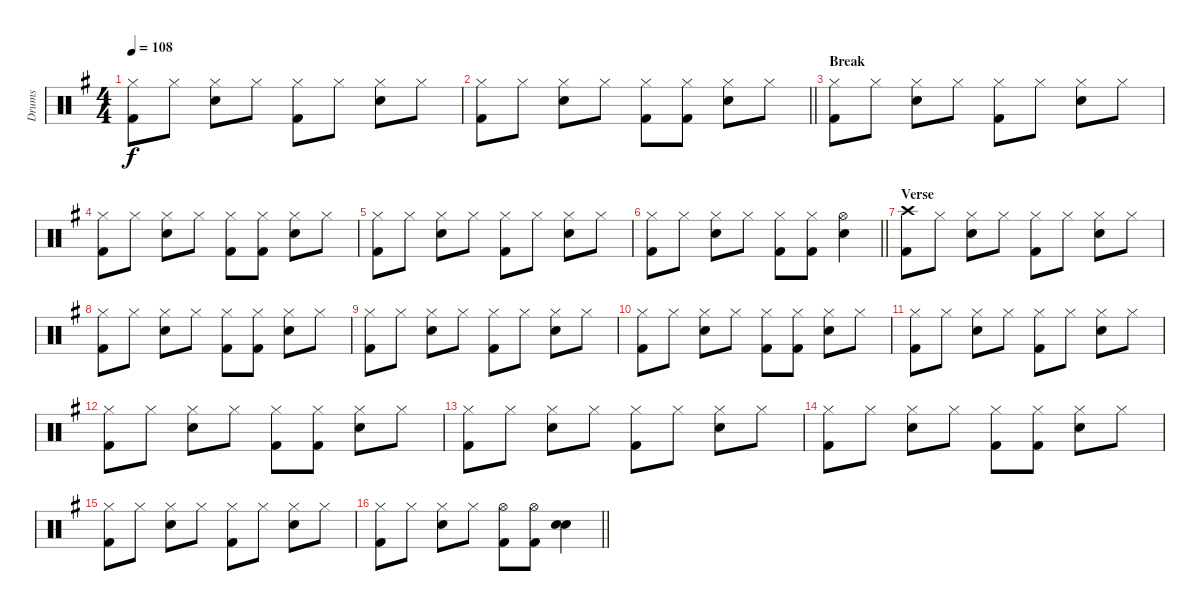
\track ("Drums" "Drums") {instrument percussion}
\staff {score}
\articulation defaults
\ts (4 4)
\tempo 108
\clef neutral
\ks g
("Hi-Hat (closed)" "Kick (hit) 2").8{dy f} "Hi-Hat (closed)".8 ("Hi-Hat (closed)" "Electric Snare (hit)").8 "Hi-Hat (closed)".8 ("Hi-Hat (closed)" "Kick (hit) 2").8 "Hi-Hat (closed)".8 ("Hi-Hat (closed)" "Electric Snare (hit)").8 "Hi-Hat (closed)".8 |
\barLineRight lightlight
("Hi-Hat (closed)" "Kick (hit) 2").8 "Hi-Hat (closed)".8 ("Hi-Hat (closed)" "Electric Snare (hit)").8 "Hi-Hat (closed)".8 ("Hi-Hat (closed)" "Kick (hit) 2").8 ("Hi-Hat (closed)" "Kick (hit) 2").8 ("Hi-Hat (closed)" "Electric Snare (hit)").8 "Hi-Hat (closed)".8 |
\section ("" "Break")
("Hi-Hat (closed)" "Kick (hit) 2").8 "Hi-Hat (closed)".8 ("Hi-Hat (closed)" "Electric Snare (hit)").8 "Hi-Hat (closed)".8 ("Hi-Hat (closed)" "Kick (hit) 2").8 "Hi-Hat (closed)".8 ("Hi-Hat (closed)" "Electric Snare (hit)").8 "Hi-Hat (closed)".8 |
("Hi-Hat (closed)" "Kick (hit) 2").8 "Hi-Hat (closed)".8 ("Hi-Hat (closed)" "Electric Snare (hit)").8 "Hi-Hat (closed)".8 ("Hi-Hat (closed)" "Kick (hit) 2").8 ("Hi-Hat (closed)" "Kick (hit) 2").8 ("Hi-Hat (closed)" "Electric Snare (hit)").8 "Hi-Hat (closed)".8 |
("Hi-Hat (closed)" "Kick (hit) 2").8 "Hi-Hat (closed)".8 ("Hi-Hat (closed)" "Electric Snare (hit)").8 "Hi-Hat (closed)".8 ("Hi-Hat (closed)" "Kick (hit) 2").8 "Hi-Hat (closed)".8 ("Hi-Hat (closed)" "Electric Snare (hit)").8 "Hi-Hat (closed)".8 |
\barLineRight lightlight
("Hi-Hat (closed)" "Kick (hit) 2").8 "Hi-Hat (closed)".8 ("Hi-Hat (closed)" "Electric Snare (hit)").8 "Hi-Hat (closed)".8 ("Hi-Hat (closed)" "Kick (hit) 2").8 ("Hi-Hat (closed)" "Kick (hit) 2").8 ("Hi-Hat (open)" "Electric Snare (hit)").4 |
\section ("" "Verse")
("Crash high (hit)" "Kick (hit) 2").8 "Hi-Hat (closed)".8 ("Hi-Hat (closed)" "Electric Snare (hit)").8 "Hi-Hat (closed)".8 ("Hi-Hat (closed)" "Kick (hit) 2").8 "Hi-Hat (closed)".8 ("Hi-Hat (closed)" "Electric Snare (hit)").8 "Hi-Hat (closed)".8 |
("Hi-Hat (closed)" "Kick (hit) 2").8 "Hi-Hat (closed)".8 ("Hi-Hat (closed)" "Electric Snare (hit)").8 "Hi-Hat (closed)".8 ("Hi-Hat (closed)" "Kick (hit) 2").8 ("Hi-Hat (closed)" "Kick (hit) 2").8 ("Hi-Hat (closed)" "Electric Snare (hit)").8 "Hi-Hat (closed)".8 |
("Hi-Hat (closed)" "Kick (hit) 2").8 "Hi-Hat (closed)".8 ("Hi-Hat (closed)" "Electric Snare (hit)").8 "Hi-Hat (closed)".8 ("Hi-Hat (closed)" "Kick (hit) 2").8 "Hi-Hat (closed)".8 ("Hi-Hat (closed)" "Electric Snare (hit)").8 "Hi-Hat (closed)".8 |
("Hi-Hat (closed)" "Kick (hit) 2").8 "Hi-Hat (closed)".8 ("Hi-Hat (closed)" "Electric Snare (hit)").8 "Hi-Hat (closed)".8 ("Hi-Hat (closed)" "Kick (hit) 2").8 ("Hi-Hat (closed)" "Kick (hit) 2").8 ("Hi-Hat (closed)" "Electric Snare (hit)").8 "Hi-Hat (closed)".8 |
("Hi-Hat (closed)" "Kick (hit) 2").8 "Hi-Hat (closed)".8 ("Hi-Hat (closed)" "Electric Snare (hit)").8 "Hi-Hat (closed)".8 ("Hi-Hat (closed)" "Kick (hit) 2").8 "Hi-Hat (closed)".8 ("Hi-Hat (closed)" "Electric Snare (hit)").8 "Hi-Hat (closed)".8 |
("Hi-Hat (closed)" "Kick (hit) 2").8 "Hi-Hat (closed)".8 ("Hi-Hat (closed)" "Electric Snare (hit)").8 "Hi-Hat (closed)".8 ("Hi-Hat (closed)" "Kick (hit) 2").8 ("Hi-Hat (closed)" "Kick (hit) 2").8 ("Hi-Hat (closed)" "Electric Snare (hit)").8 "Hi-Hat (closed)".8 |
("Hi-Hat (closed)" "Kick (hit) 2").8 "Hi-Hat (closed)".8 ("Hi-Hat (closed)" "Electric Snare (hit)").8 "Hi-Hat (closed)".8 ("Hi-Hat (closed)" "Kick (hit) 2").8 "Hi-Hat (closed)".8 ("Hi-Hat (closed)" "Electric Snare (hit)").8 "Hi-Hat (closed)".8 |
("Hi-Hat (closed)" "Kick (hit) 2").8 "Hi-Hat (closed)".8 ("Hi-Hat (closed)" "Electric Snare (hit)").8 "Hi-Hat (closed)".8 ("Hi-Hat (closed)" "Kick (hit) 2").8 ("Hi-Hat (closed)" "Kick (hit) 2").8 ("Hi-Hat (closed)" "Electric Snare (hit)").8 "Hi-Hat (closed)".8 |
("Hi-Hat (closed)" "Kick (hit) 2").8 "Hi-Hat (closed)".8 ("Hi-Hat (closed)" "Electric Snare (hit)").8 "Hi-Hat (closed)".8 ("Hi-Hat (closed)" "Kick (hit) 2").8 "Hi-Hat (closed)".8 ("Hi-Hat (closed)" "Electric Snare (hit)").8 "Hi-Hat (closed)".8 |
\barLineRight lightlight
("Hi-Hat (closed)" "Kick (hit) 2").8 "Hi-Hat (closed)".8 ("Hi-Hat (closed)" "Electric Snare (hit)").8 "Hi-Hat (closed)".8 ("Hi-Hat (open)" "Kick (hit) 2").8 ("Hi-Hat (open)" "Kick (hit) 2").8 ("Electric Snare (hit)" "Electric Snare (hit)").4
